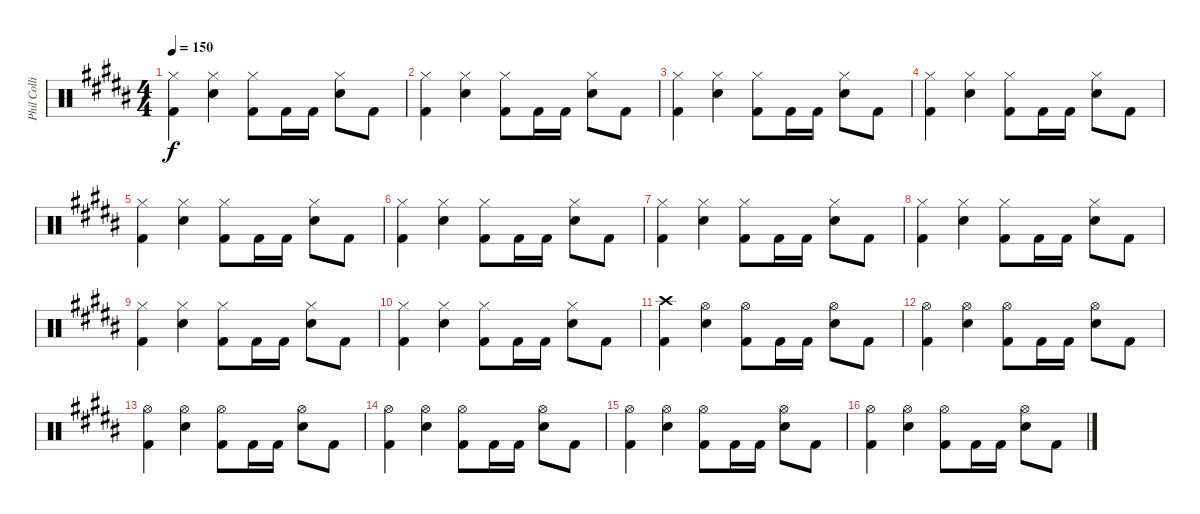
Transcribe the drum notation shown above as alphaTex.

\track ("Phil Collins [Drums]" "Phil Colli") {instrument percussion}
\staff {score}
\articulation defaults
\ts (4 4)
\tempo 150
\clef neutral
\ks b
("Hi-Hat (closed)" "Kick (hit) 2").4{dy f} ("Hi-Hat (closed)" "Electric Snare (hit)").4 ("Hi-Hat (closed)" "Kick (hit) 2").8 "Kick (hit) 2".16 "Kick (hit) 2".16 ("Hi-Hat (closed)" "Electric Snare (hit)").8 "Kick (hit) 2".8 |
("Hi-Hat (closed)" "Kick (hit) 2").4 ("Hi-Hat (closed)" "Electric Snare (hit)").4 ("Hi-Hat (closed)" "Kick (hit) 2").8 "Kick (hit) 2".16 "Kick (hit) 2".16 ("Hi-Hat (closed)" "Electric Snare (hit)").8 "Kick (hit) 2".8 |
("Hi-Hat (closed)" "Kick (hit) 2").4 ("Hi-Hat (closed)" "Electric Snare (hit)").4 ("Hi-Hat (closed)" "Kick (hit) 2").8 "Kick (hit) 2".16 "Kick (hit) 2".16 ("Hi-Hat (closed)" "Electric Snare (hit)").8 "Kick (hit) 2".8 |
("Hi-Hat (closed)" "Kick (hit) 2").4 ("Hi-Hat (closed)" "Electric Snare (hit)").4 ("Hi-Hat (closed)" "Kick (hit) 2").8 "Kick (hit) 2".16 "Kick (hit) 2".16 ("Hi-Hat (closed)" "Electric Snare (hit)").8 "Kick (hit) 2".8 |
("Hi-Hat (closed)" "Kick (hit) 2").4 ("Hi-Hat (closed)" "Electric Snare (hit)").4 ("Hi-Hat (closed)" "Kick (hit) 2").8 "Kick (hit) 2".16 "Kick (hit) 2".16 ("Hi-Hat (closed)" "Electric Snare (hit)").8 "Kick (hit) 2".8 |
("Hi-Hat (closed)" "Kick (hit) 2").4 ("Hi-Hat (closed)" "Electric Snare (hit)").4 ("Hi-Hat (closed)" "Kick (hit) 2").8 "Kick (hit) 2".16 "Kick (hit) 2".16 ("Hi-Hat (closed)" "Electric Snare (hit)").8 "Kick (hit) 2".8 |
("Hi-Hat (closed)" "Kick (hit) 2").4 ("Hi-Hat (closed)" "Electric Snare (hit)").4 ("Hi-Hat (closed)" "Kick (hit) 2").8 "Kick (hit) 2".16 "Kick (hit) 2".16 ("Hi-Hat (closed)" "Electric Snare (hit)").8 "Kick (hit) 2".8 |
("Hi-Hat (closed)" "Kick (hit) 2").4 ("Hi-Hat (closed)" "Electric Snare (hit)").4 ("Hi-Hat (closed)" "Kick (hit) 2").8 "Kick (hit) 2".16 "Kick (hit) 2".16 ("Hi-Hat (closed)" "Electric Snare (hit)").8 "Kick (hit) 2".8 |
("Hi-Hat (closed)" "Kick (hit) 2").4 ("Hi-Hat (closed)" "Electric Snare (hit)").4 ("Hi-Hat (closed)" "Kick (hit) 2").8 "Kick (hit) 2".16 "Kick (hit) 2".16 ("Hi-Hat (closed)" "Electric Snare (hit)").8 "Kick (hit) 2".8 |
("Hi-Hat (closed)" "Kick (hit) 2").4 ("Hi-Hat (closed)" "Electric Snare (hit)").4 ("Hi-Hat (closed)" "Kick (hit) 2").8 "Kick (hit) 2".16 "Kick (hit) 2".16 ("Hi-Hat (closed)" "Electric Snare (hit)").8 "Kick (hit) 2".8 |
("Crash high (hit)" "Kick (hit) 2").4 ("Hi-Hat (open)" "Electric Snare (hit)").4 ("Hi-Hat (open)" "Kick (hit) 2").8 "Kick (hit) 2".16 "Kick (hit) 2".16 ("Hi-Hat (open)" "Electric Snare (hit)").8 "Kick (hit) 2".8 |
("Hi-Hat (open)" "Kick (hit) 2").4 ("Hi-Hat (open)" "Electric Snare (hit)").4 ("Hi-Hat (open)" "Kick (hit) 2").8 "Kick (hit) 2".16 "Kick (hit) 2".16 ("Hi-Hat (open)" "Electric Snare (hit)").8 "Kick (hit) 2".8 |
("Hi-Hat (open)" "Kick (hit) 2").4 ("Hi-Hat (open)" "Electric Snare (hit)").4 ("Hi-Hat (open)" "Kick (hit) 2").8 "Kick (hit) 2".16 "Kick (hit) 2".16 ("Hi-Hat (open)" "Electric Snare (hit)").8 "Kick (hit) 2".8 |
("Hi-Hat (open)" "Kick (hit) 2").4 ("Hi-Hat (open)" "Electric Snare (hit)").4 ("Hi-Hat (open)" "Kick (hit) 2").8 "Kick (hit) 2".16 "Kick (hit) 2".16 ("Hi-Hat (open)" "Electric Snare (hit)").8 "Kick (hit) 2".8 |
("Hi-Hat (open)" "Kick (hit) 2").4 ("Hi-Hat (open)" "Electric Snare (hit)").4 ("Hi-Hat (open)" "Kick (hit) 2").8 "Kick (hit) 2".16 "Kick (hit) 2".16 ("Hi-Hat (open)" "Electric Snare (hit)").8 "Kick (hit) 2".8 |
("Hi-Hat (open)" "Kick (hit) 2").4 ("Hi-Hat (open)" "Electric Snare (hit)").4 ("Hi-Hat (open)" "Kick (hit) 2").8 "Kick (hit) 2".16 "Kick (hit) 2".16 ("Hi-Hat (open)" "Electric Snare (hit)").8 "Kick (hit) 2".8
